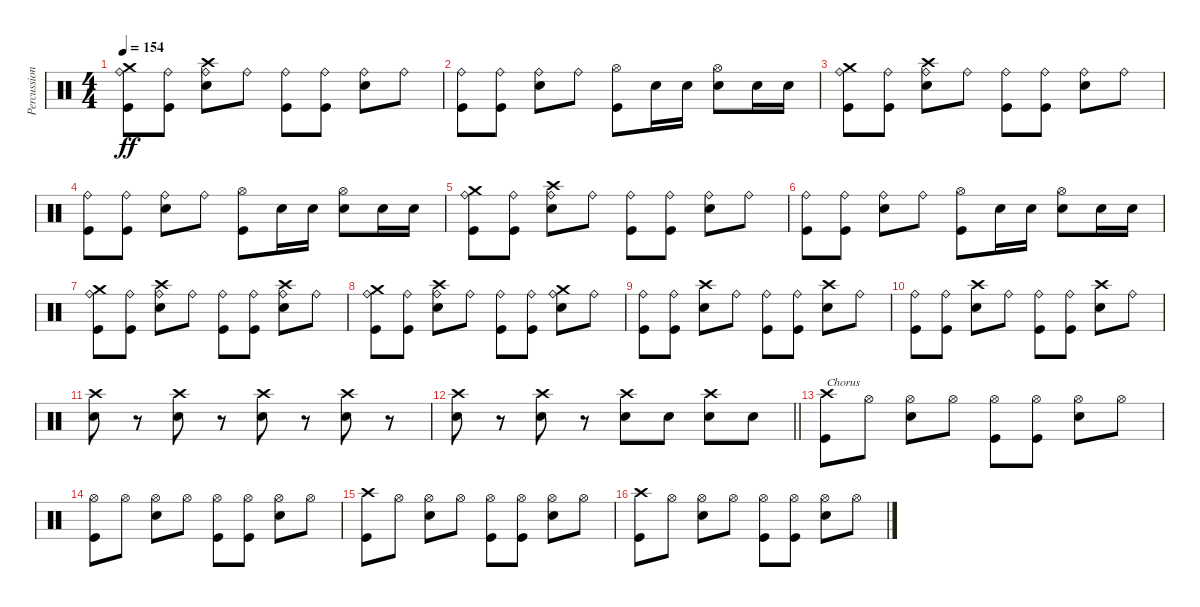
\track ("Percussion" "Percussion") {instrument percussion}
\staff {score}
\articulation defaults
\ts (4 4)
\tempo 154
\clef neutral
\ks c
("Crash medium (hit)" "Ride (bell)" "Kick (hit)").8{dy ff} ("Ride (bell)" "Kick (hit)").8 ("Crash high (hit)" "Ride (bell)" "Electric Snare (hit)").8 "Ride (bell)".8 ("Ride (bell)" "Kick (hit)").8 ("Ride (bell)" "Kick (hit)").8 ("Ride (bell)" "Electric Snare (hit)").8 "Ride (bell)".8 |
("Ride (bell)" "Kick (hit)").8 ("Ride (bell)" "Kick (hit)").8 ("Ride (bell)" "Electric Snare (hit)").8 "Ride (bell)".8 ("Hi-Hat (open)" "Kick (hit)").8 "Electric Snare (hit)".16 "Electric Snare (hit)".16 ("Hi-Hat (open)" "Electric Snare (hit)").8 "Electric Snare (hit)".16 "Electric Snare (hit)".16 |
("Crash medium (hit)" "Ride (bell)" "Kick (hit)").8 ("Ride (bell)" "Kick (hit)").8 ("Crash high (hit)" "Ride (bell)" "Electric Snare (hit)").8 "Ride (bell)".8 ("Ride (bell)" "Kick (hit)").8 ("Ride (bell)" "Kick (hit)").8 ("Ride (bell)" "Electric Snare (hit)").8 "Ride (bell)".8 |
("Ride (bell)" "Kick (hit)").8 ("Ride (bell)" "Kick (hit)").8 ("Ride (bell)" "Electric Snare (hit)").8 "Ride (bell)".8 ("Hi-Hat (open)" "Kick (hit)").8 "Electric Snare (hit)".16 "Electric Snare (hit)".16 ("Hi-Hat (open)" "Electric Snare (hit)").8 "Electric Snare (hit)".16 "Electric Snare (hit)".16 |
("Crash medium (hit)" "Ride (bell)" "Kick (hit)").8 ("Ride (bell)" "Kick (hit)").8 ("Crash high (hit)" "Ride (bell)" "Electric Snare (hit)").8 "Ride (bell)".8 ("Ride (bell)" "Kick (hit)").8 ("Ride (bell)" "Kick (hit)").8 ("Ride (bell)" "Electric Snare (hit)").8 "Ride (bell)".8 |
("Ride (bell)" "Kick (hit)").8 ("Ride (bell)" "Kick (hit)").8 ("Ride (bell)" "Electric Snare (hit)").8 "Ride (bell)".8 ("Hi-Hat (open)" "Kick (hit)").8 "Electric Snare (hit)".16 "Electric Snare (hit)".16 ("Hi-Hat (open)" "Electric Snare (hit)").8 "Electric Snare (hit)".16 "Electric Snare (hit)".16 |
("Crash medium (hit)" "Ride (bell)" "Kick (hit)").8 ("Ride (bell)" "Kick (hit)").8 ("Crash high (hit)" "Ride (bell)" "Electric Snare (hit)").8 "Ride (bell)".8 ("Ride (bell)" "Kick (hit)").8 ("Ride (bell)" "Kick (hit)").8 ("Crash high (hit)" "Ride (bell)" "Electric Snare (hit)").8 "Ride (bell)".8 |
("Crash medium (hit)" "Ride (bell)" "Kick (hit)").8 ("Ride (bell)" "Kick (hit)").8 ("Crash high (hit)" "Ride (bell)" "Electric Snare (hit)").8 "Ride (bell)".8 ("Ride (bell)" "Kick (hit)").8 ("Ride (bell)" "Kick (hit)").8 ("Crash medium (hit)" "Ride (bell)" "Electric Snare (hit)").8 "Ride (bell)".8 |
("Ride (bell)" "Kick (hit)").8 ("Ride (bell)" "Kick (hit)").8 ("Crash high (hit)" "Electric Snare (hit)").8 "Ride (bell)".8 ("Ride (bell)" "Kick (hit)").8 ("Ride (bell)" "Kick (hit)").8 ("Crash high (hit)" "Electric Snare (hit)").8 "Ride (bell)".8 |
("Ride (bell)" "Kick (hit)").8 ("Ride (bell)" "Kick (hit)").8 ("Crash high (hit)" "Electric Snare (hit)").8 "Ride (bell)".8 ("Ride (bell)" "Kick (hit)").8 ("Ride (bell)" "Kick (hit)").8 ("Crash high (hit)" "Electric Snare (hit)").8 "Ride (bell)".8 |
("Crash high (hit)" "Electric Snare (hit)").8 r.8 ("Crash high (hit)" "Electric Snare (hit)").8 r.8 ("Crash high (hit)" "Electric Snare (hit)").8 r.8 ("Crash high (hit)" "Electric Snare (hit)").8 r.8 |
\barLineRight lightlight
("Crash high (hit)" "Electric Snare (hit)").8 r.8 ("Crash high (hit)" "Electric Snare (hit)").8 r.8 ("Crash high (hit)" "Electric Snare (hit)").8 "Electric Snare (hit)".8 ("Crash high (hit)" "Electric Snare (hit)").8 "Electric Snare (hit)".8 |
("Crash high (hit)" "Kick (hit)").8{txt "Chorus"} "Hi-Hat (open)".8 ("Hi-Hat (open)" "Electric Snare (hit)").8 "Hi-Hat (open)".8 ("Hi-Hat (open)" "Kick (hit)").8 ("Hi-Hat (open)" "Kick (hit)").8 ("Hi-Hat (open)" "Electric Snare (hit)").8 "Hi-Hat (open)".8 |
("Hi-Hat (open)" "Kick (hit)").8 "Hi-Hat (open)".8 ("Hi-Hat (open)" "Electric Snare (hit)").8 "Hi-Hat (open)".8 ("Hi-Hat (open)" "Kick (hit)").8 ("Hi-Hat (open)" "Kick (hit)").8 ("Hi-Hat (open)" "Electric Snare (hit)").8 "Hi-Hat (open)".8 |
("Crash high (hit)" "Kick (hit)").8 "Hi-Hat (open)".8 ("Hi-Hat (open)" "Electric Snare (hit)").8 "Hi-Hat (open)".8 ("Hi-Hat (open)" "Kick (hit)").8 ("Hi-Hat (open)" "Kick (hit)").8 ("Hi-Hat (open)" "Electric Snare (hit)").8 "Hi-Hat (open)".8 |
("Crash high (hit)" "Kick (hit)").8 "Hi-Hat (open)".8 ("Hi-Hat (open)" "Electric Snare (hit)").8 "Hi-Hat (open)".8 ("Hi-Hat (open)" "Kick (hit)").8 ("Hi-Hat (open)" "Kick (hit)").8 ("Hi-Hat (open)" "Electric Snare (hit)").8 "Hi-Hat (open)".8
